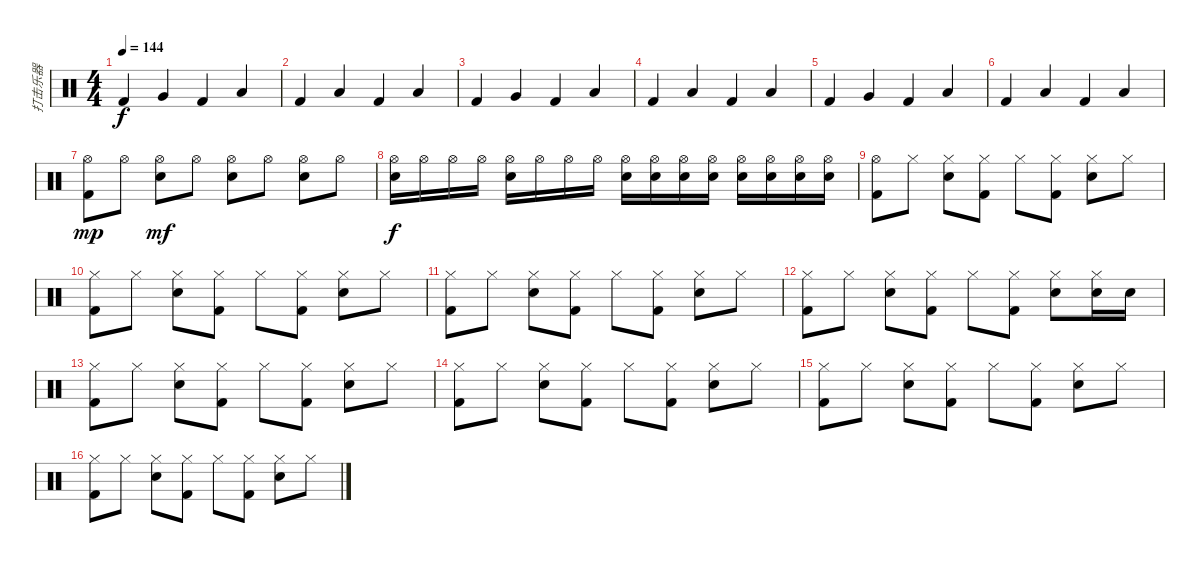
\track ("打击乐器" "打击乐器") {instrument percussion}
\staff {score}
\articulation defaults
\ts (4 4)
\tempo 144
\clef neutral
\ks c "Kick (hit) 2".4{dy f} "Very Low Tom (hit)".4 "Kick (hit) 2".4 "Low Floor Tom (hit)".4
|
"Kick (hit) 2".4 "Low Floor Tom (hit)".4 "Kick (hit) 2".4 "Low Floor Tom (hit)".4 |
"Kick (hit) 2".4 "Very Low Tom (hit)".4 "Kick (hit) 2".4 "Low Floor Tom (hit)".4 |
"Kick (hit) 2".4 "Low Floor Tom (hit)".4 "Kick (hit) 2".4 "Low Floor Tom (hit)".4 |
"Kick (hit) 2".4 "Very Low Tom (hit)".4 "Kick (hit) 2".4 "Low Floor Tom (hit)".4 |
"Kick (hit) 2".4 "Low Floor Tom (hit)".4 "Kick (hit) 2".4 "Low Floor Tom (hit)".4 |
("Hi-Hat (open)" "Kick (hit) 2").8{dy mp} "Hi-Hat (open)".8 ("Hi-Hat (open)" "Electric Snare (hit)").8{dy mf} "Hi-Hat (open)".8 ("Hi-Hat (open)" "Electric Snare (hit)").8 "Hi-Hat (open)".8 ("Hi-Hat (open)" "Electric Snare (hit)").8 "Hi-Hat (open)".8 |
("Hi-Hat (open)" "Electric Snare (hit)").16{dy f} "Hi-Hat (open)".16 "Hi-Hat (open)".16 "Hi-Hat (open)".16 ("Hi-Hat (open)" "Electric Snare (hit)").16 "Hi-Hat (open)".16 "Hi-Hat (open)".16 "Hi-Hat (open)".16 ("Hi-Hat (open)" "Electric Snare (hit)").16 ("Hi-Hat (open)" "Electric Snare (hit)").16 ("Hi-Hat (open)" "Electric Snare (hit)").16 ("Hi-Hat (open)" "Electric Snare (hit)").16 ("Hi-Hat (open)" "Electric Snare (hit)").16 ("Hi-Hat (open)" "Electric Snare (hit)").16 ("Hi-Hat (open)" "Electric Snare (hit)").16 ("Hi-Hat (open)" "Electric Snare (hit)").16 |
("Hi-Hat (open)" "Kick (hit) 2").8 "Hi-Hat (closed)".8 ("Hi-Hat (closed)" "Electric Snare (hit)").8 ("Hi-Hat (closed)" "Kick (hit) 2").8 "Hi-Hat (closed)".8 ("Hi-Hat (closed)" "Kick (hit) 2").8 ("Hi-Hat (closed)" "Electric Snare (hit)").8 "Hi-Hat (closed)".8 |
("Hi-Hat (closed)" "Kick (hit) 2").8 "Hi-Hat (closed)".8 ("Hi-Hat (closed)" "Electric Snare (hit)").8 ("Hi-Hat (closed)" "Kick (hit) 2").8 "Hi-Hat (closed)".8 ("Hi-Hat (closed)" "Kick (hit) 2").8 ("Hi-Hat (closed)" "Electric Snare (hit)").8 "Hi-Hat (closed)".8 |
("Hi-Hat (closed)" "Kick (hit) 2").8 "Hi-Hat (closed)".8 ("Hi-Hat (closed)" "Electric Snare (hit)").8 ("Hi-Hat (closed)" "Kick (hit) 2").8 "Hi-Hat (closed)".8 ("Hi-Hat (closed)" "Kick (hit) 2").8 ("Hi-Hat (closed)" "Electric Snare (hit)").8 "Hi-Hat (closed)".8 |
("Hi-Hat (closed)" "Kick (hit) 2").8 "Hi-Hat (closed)".8 ("Hi-Hat (closed)" "Electric Snare (hit)").8 ("Hi-Hat (closed)" "Kick (hit) 2").8 "Hi-Hat (closed)".8 ("Hi-Hat (closed)" "Kick (hit) 2").8 ("Hi-Hat (closed)" "Electric Snare (hit)").8 ("Hi-Hat (closed)" "Electric Snare (hit)").16 "Electric Snare (hit)".16 |
("Hi-Hat (closed)" "Kick (hit) 2").8 "Hi-Hat (closed)".8 ("Hi-Hat (closed)" "Electric Snare (hit)").8 ("Hi-Hat (closed)" "Kick (hit) 2").8 "Hi-Hat (closed)".8 ("Hi-Hat (closed)" "Kick (hit) 2").8 ("Hi-Hat (closed)" "Electric Snare (hit)").8 "Hi-Hat (closed)".8 |
("Hi-Hat (closed)" "Kick (hit) 2").8 "Hi-Hat (closed)".8 ("Hi-Hat (closed)" "Electric Snare (hit)").8 ("Hi-Hat (closed)" "Kick (hit) 2").8 "Hi-Hat (closed)".8 ("Hi-Hat (closed)" "Kick (hit) 2").8 ("Hi-Hat (closed)" "Electric Snare (hit)").8 "Hi-Hat (closed)".8 |
("Hi-Hat (closed)" "Kick (hit) 2").8 "Hi-Hat (closed)".8 ("Hi-Hat (closed)" "Electric Snare (hit)").8 ("Hi-Hat (closed)" "Kick (hit) 2").8 "Hi-Hat (closed)".8 ("Hi-Hat (closed)" "Kick (hit) 2").8 ("Hi-Hat (closed)" "Electric Snare (hit)").8 "Hi-Hat (closed)".8 |
("Hi-Hat (closed)" "Kick (hit) 2").8 "Hi-Hat (closed)".8 ("Hi-Hat (closed)" "Electric Snare (hit)").8 ("Hi-Hat (closed)" "Kick (hit) 2").8 "Hi-Hat (closed)".8 ("Hi-Hat (closed)" "Kick (hit) 2").8 ("Hi-Hat (closed)" "Electric Snare (hit)").8 "Hi-Hat (closed)".8
